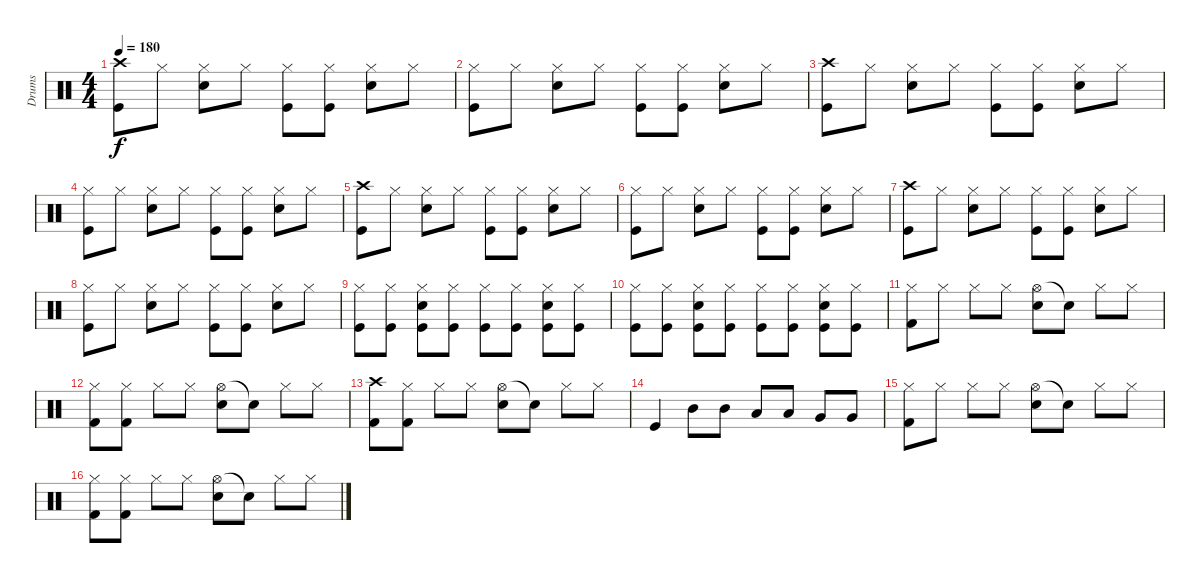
\track ("Drums" "Drums") {instrument percussion}
\staff {score}
\articulation defaults
\ts (4 4)
\tempo 180
\clef neutral
\ks c
("Crash high (hit)" "Kick (hit)").8{dy f} "Hi-Hat (closed)".8 ("Hi-Hat (closed)" "Snare (hit) 2").8 "Hi-Hat (closed)".8 ("Hi-Hat (closed)" "Kick (hit)").8 ("Hi-Hat (closed)" "Kick (hit)").8 ("Hi-Hat (closed)" "Snare (hit) 2").8 "Hi-Hat (closed)".8 |
("Hi-Hat (closed)" "Kick (hit)").8 "Hi-Hat (closed)".8 ("Hi-Hat (closed)" "Snare (hit) 2").8 "Hi-Hat (closed)".8 ("Hi-Hat (closed)" "Kick (hit)").8 ("Hi-Hat (closed)" "Kick (hit)").8 ("Hi-Hat (closed)" "Snare (hit) 2").8 "Hi-Hat (closed)".8 |
("Crash high (hit)" "Kick (hit)").8 "Hi-Hat (closed)".8 ("Hi-Hat (closed)" "Snare (hit) 2").8 "Hi-Hat (closed)".8 ("Hi-Hat (closed)" "Kick (hit)").8 ("Hi-Hat (closed)" "Kick (hit)").8 ("Hi-Hat (closed)" "Snare (hit) 2").8 "Hi-Hat (closed)".8 |
("Hi-Hat (closed)" "Kick (hit)").8 "Hi-Hat (closed)".8 ("Hi-Hat (closed)" "Snare (hit) 2").8 "Hi-Hat (closed)".8 ("Hi-Hat (closed)" "Kick (hit)").8 ("Hi-Hat (closed)" "Kick (hit)").8 ("Hi-Hat (closed)" "Snare (hit) 2").8 "Hi-Hat (closed)".8 |
("Crash high (hit)" "Kick (hit)").8 "Hi-Hat (closed)".8 ("Hi-Hat (closed)" "Snare (hit) 2").8 "Hi-Hat (closed)".8 ("Hi-Hat (closed)" "Kick (hit)").8 ("Hi-Hat (closed)" "Kick (hit)").8 ("Hi-Hat (closed)" "Snare (hit) 2").8 "Hi-Hat (closed)".8 |
("Hi-Hat (closed)" "Kick (hit)").8 "Hi-Hat (closed)".8 ("Hi-Hat (closed)" "Snare (hit) 2").8 "Hi-Hat (closed)".8 ("Hi-Hat (closed)" "Kick (hit)").8 ("Hi-Hat (closed)" "Kick (hit)").8 ("Hi-Hat (closed)" "Snare (hit) 2").8 "Hi-Hat (closed)".8 |
("Crash high (hit)" "Kick (hit)").8 "Hi-Hat (closed)".8 ("Hi-Hat (closed)" "Snare (hit) 2").8 "Hi-Hat (closed)".8 ("Hi-Hat (closed)" "Kick (hit)").8 ("Hi-Hat (closed)" "Kick (hit)").8 ("Hi-Hat (closed)" "Snare (hit) 2").8 "Hi-Hat (closed)".8 |
("Hi-Hat (closed)" "Kick (hit)").8 "Hi-Hat (closed)".8 ("Hi-Hat (closed)" "Snare (hit) 2").8 "Hi-Hat (closed)".8 ("Hi-Hat (closed)" "Kick (hit)").8 ("Hi-Hat (closed)" "Kick (hit)").8 ("Hi-Hat (closed)" "Snare (hit) 2").8 "Hi-Hat (closed)".8 |
("Hi-Hat (closed)" "Kick (hit)").8 ("Hi-Hat (closed)" "Kick (hit)").8 ("Hi-Hat (closed)" "Snare (hit) 2" "Kick (hit)").8 ("Hi-Hat (closed)" "Kick (hit)").8 ("Hi-Hat (closed)" "Kick (hit)").8 ("Hi-Hat (closed)" "Kick (hit)").8 ("Hi-Hat (closed)" "Snare (hit) 2" "Kick (hit)").8 ("Hi-Hat (closed)" "Kick (hit)").8 |
("Hi-Hat (closed)" "Kick (hit)").8 ("Hi-Hat (closed)" "Kick (hit)").8 ("Hi-Hat (closed)" "Snare (hit) 2" "Kick (hit)").8 ("Hi-Hat (closed)" "Kick (hit)").8 ("Hi-Hat (closed)" "Kick (hit)").8 ("Hi-Hat (closed)" "Kick (hit)").8 ("Hi-Hat (closed)" "Snare (hit) 2" "Kick (hit)").8 ("Hi-Hat (closed)" "Kick (hit)").8 |
("Hi-Hat (closed)" "Kick (hit) 2").8 "Hi-Hat (closed)".8 "Hi-Hat (closed)".8 "Hi-Hat (closed)".8 ("Hi-Hat (open)" "Snare (hit) 2").8 "Snare (hit)"{t}.8 "Hi-Hat (closed)".8 "Hi-Hat (closed)".8 |
("Hi-Hat (closed)" "Kick (hit) 2").8 ("Hi-Hat (closed)" "Kick (hit) 2").8 "Hi-Hat (closed)".8 "Hi-Hat (closed)".8 ("Hi-Hat (open)" "Snare (hit) 2").8 "Snare (hit)"{t}.8 "Hi-Hat (closed)".8 "Hi-Hat (closed)".8 |
("Crash high (hit)" "Kick (hit) 2").8 ("Hi-Hat (closed)" "Kick (hit) 2").8 "Hi-Hat (closed)".8 "Hi-Hat (closed)".8 ("Hi-Hat (open)" "Snare (hit) 2").8 "Snare (hit)"{t}.8 "Hi-Hat (closed)".8 "Hi-Hat (closed)".8 |
"Kick (hit)".4 "Mid Tom (hit)".8 "Mid Tom (hit)".8 "Low Tom (hit)".8 "Low Tom (hit)".8 "Very Low Tom (hit)".8 "Very Low Tom (hit)".8 |
("Hi-Hat (closed)" "Kick (hit) 2").8 "Hi-Hat (closed)".8 "Hi-Hat (closed)".8 "Hi-Hat (closed)".8 ("Hi-Hat (open)" "Snare (hit) 2").8 "Snare (hit)"{t}.8 "Hi-Hat (closed)".8 "Hi-Hat (closed)".8 |
("Hi-Hat (closed)" "Kick (hit) 2").8 ("Hi-Hat (closed)" "Kick (hit) 2").8 "Hi-Hat (closed)".8 "Hi-Hat (closed)".8 ("Hi-Hat (open)" "Snare (hit) 2").8 "Snare (hit)"{t}.8 "Hi-Hat (closed)".8 "Hi-Hat (closed)".8
